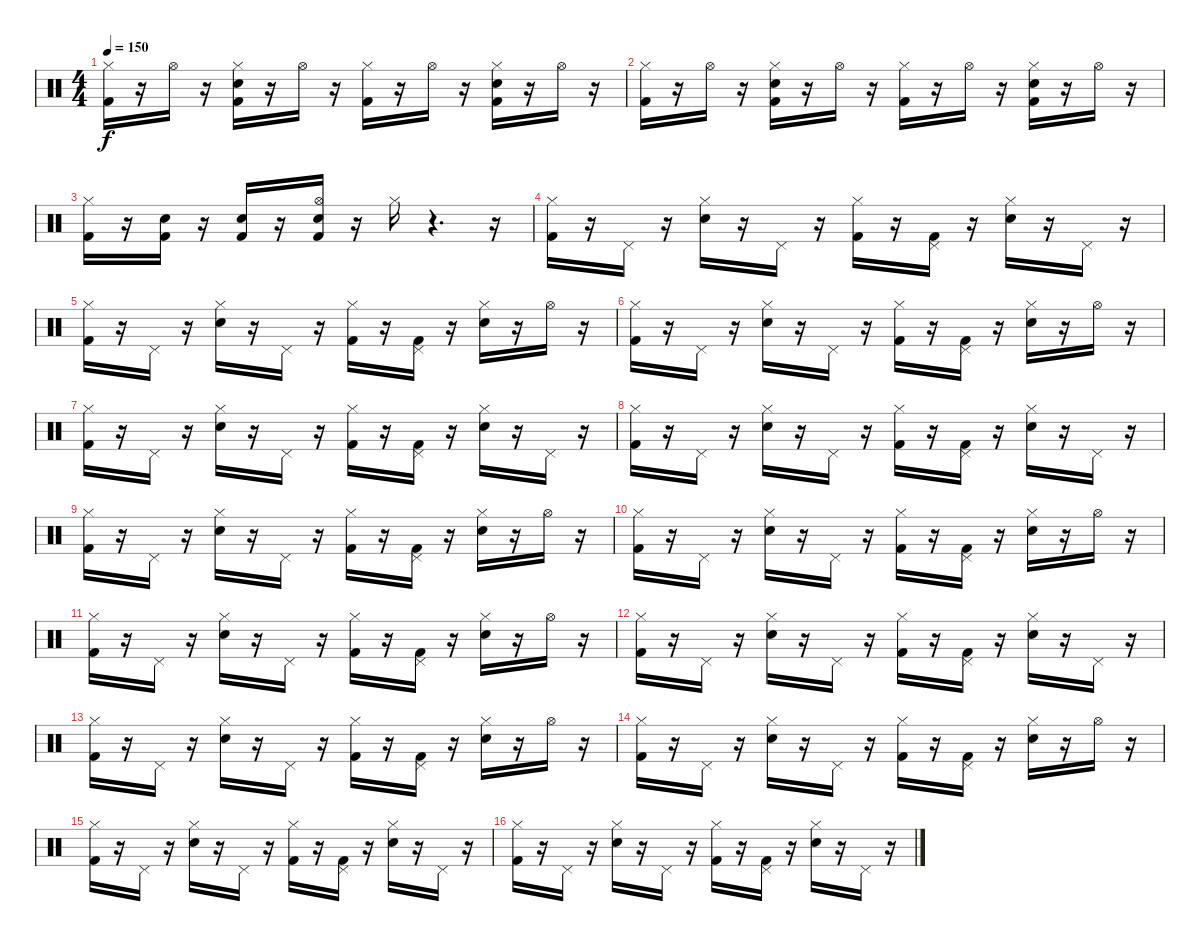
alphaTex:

\track "" {instrument percussion}
\staff {score}
\articulation defaults
\ts (4 4)
\tempo 150
\clef neutral
\ks c
("Hi-Hat (closed)" "Kick (hit) 2").16{dy f} r.16 "Hi-Hat (open)".16 r.16 ("Hi-Hat (closed)" "Kick (hit) 2" "Electric Snare (hit)").16 r.16 "Hi-Hat (open)".16 r.16 ("Hi-Hat (closed)" "Kick (hit) 2").16 r.16 "Hi-Hat (open)".16 r.16 ("Hi-Hat (closed)" "Kick (hit) 2" "Electric Snare (hit)").16 r.16 "Hi-Hat (open)".16 r.16 |
("Hi-Hat (closed)" "Kick (hit) 2").16 r.16 "Hi-Hat (open)".16 r.16 ("Electric Snare (hit)" "Kick (hit) 2" "Hi-Hat (closed)").16 r.16 "Hi-Hat (open)".16 r.16 ("Kick (hit) 2" "Hi-Hat (closed)").16 r.16 "Hi-Hat (open)".16 r.16 ("Electric Snare (hit)" "Kick (hit) 2" "Hi-Hat (closed)").16 r.16 "Hi-Hat (open)".16 r.16 |
("Kick (hit) 2" "Hi-Hat (closed)").16 r.16 ("Kick (hit) 2" "Electric Snare (hit)").16 r.16 ("Kick (hit) 2" "Electric Snare (hit)").16 r.16 ("Electric Snare (hit)" "Hi-Hat (open)" "Kick (hit) 2").16 r.16 "Hi-Hat (closed)".16 r.4{d} r.16 |
("Hi-Hat (closed)" "Kick (hit) 2").16 r.16 "Pedal Hi-Hat (hit)".16 r.16 ("Hi-Hat (closed)" "Electric Snare (hit)").16 r.16 "Pedal Hi-Hat (hit)".16 r.16 ("Hi-Hat (closed)" "Kick (hit) 2").16 r.16 ("Pedal Hi-Hat (hit)" "Kick (hit) 2").16 r.16 ("Hi-Hat (closed)" "Electric Snare (hit)").16 r.16 "Pedal Hi-Hat (hit)".16 r.16 |
("Hi-Hat (closed)" "Kick (hit) 2").16 r.16 "Pedal Hi-Hat (hit)".16 r.16 ("Hi-Hat (closed)" "Electric Snare (hit)").16 r.16 "Pedal Hi-Hat (hit)".16 r.16 ("Hi-Hat (closed)" "Kick (hit) 2").16 r.16 ("Pedal Hi-Hat (hit)" "Kick (hit) 2").16 r.16 ("Hi-Hat (closed)" "Electric Snare (hit)").16 r.16 "Hi-Hat (open)".16 r.16 |
("Hi-Hat (closed)" "Kick (hit) 2").16 r.16 "Pedal Hi-Hat (hit)".16 r.16 ("Electric Snare (hit)" "Hi-Hat (closed)").16 r.16 "Pedal Hi-Hat (hit)".16 r.16 ("Kick (hit) 2" "Hi-Hat (closed)").16 r.16 ("Kick (hit) 2" "Pedal Hi-Hat (hit)").16 r.16 ("Electric Snare (hit)" "Hi-Hat (closed)").16 r.16 "Hi-Hat (open)".16 r.16 |
("Hi-Hat (closed)" "Kick (hit) 2").16 r.16 "Pedal Hi-Hat (hit)".16 r.16 ("Hi-Hat (closed)" "Electric Snare (hit)").16 r.16 "Pedal Hi-Hat (hit)".16 r.16 ("Hi-Hat (closed)" "Kick (hit) 2").16 r.16 ("Pedal Hi-Hat (hit)" "Kick (hit) 2").16 r.16 ("Hi-Hat (closed)" "Electric Snare (hit)").16 r.16 "Pedal Hi-Hat (hit)".16 r.16 |
("Hi-Hat (closed)" "Kick (hit) 2").16 r.16 "Pedal Hi-Hat (hit)".16 r.16 ("Electric Snare (hit)" "Hi-Hat (closed)").16 r.16 "Pedal Hi-Hat (hit)".16 r.16 ("Kick (hit) 2" "Hi-Hat (closed)").16 r.16 ("Kick (hit) 2" "Pedal Hi-Hat (hit)").16 r.16 ("Electric Snare (hit)" "Hi-Hat (closed)").16 r.16 "Pedal Hi-Hat (hit)".16 r.16 |
("Hi-Hat (closed)" "Kick (hit) 2").16 r.16 "Pedal Hi-Hat (hit)".16 r.16 ("Hi-Hat (closed)" "Electric Snare (hit)").16 r.16 "Pedal Hi-Hat (hit)".16 r.16 ("Hi-Hat (closed)" "Kick (hit) 2").16 r.16 ("Pedal Hi-Hat (hit)" "Kick (hit) 2").16 r.16 ("Hi-Hat (closed)" "Electric Snare (hit)").16 r.16 "Hi-Hat (open)".16 r.16 |
("Hi-Hat (closed)" "Kick (hit) 2").16 r.16 "Pedal Hi-Hat (hit)".16 r.16 ("Electric Snare (hit)" "Hi-Hat (closed)").16 r.16 "Pedal Hi-Hat (hit)".16 r.16 ("Kick (hit) 2" "Hi-Hat (closed)").16 r.16 ("Kick (hit) 2" "Pedal Hi-Hat (hit)").16 r.16 ("Electric Snare (hit)" "Hi-Hat (closed)").16 r.16 "Hi-Hat (open)".16 r.16 |
("Kick (hit) 2" "Hi-Hat (closed)").16 r.16 "Pedal Hi-Hat (hit)".16 r.16 ("Hi-Hat (closed)" "Electric Snare (hit)").16 r.16 "Pedal Hi-Hat (hit)".16 r.16 ("Hi-Hat (closed)" "Kick (hit) 2").16 r.16 ("Pedal Hi-Hat (hit)" "Kick (hit) 2").16 r.16 ("Hi-Hat (closed)" "Electric Snare (hit)").16 r.16 "Hi-Hat (open)".16 r.16 |
("Hi-Hat (closed)" "Kick (hit) 2").16 r.16 "Pedal Hi-Hat (hit)".16 r.16 ("Hi-Hat (closed)" "Electric Snare (hit)").16 r.16 "Pedal Hi-Hat (hit)".16 r.16 ("Hi-Hat (closed)" "Kick (hit) 2").16 r.16 ("Pedal Hi-Hat (hit)" "Kick (hit) 2").16 r.16 ("Hi-Hat (closed)" "Electric Snare (hit)").16 r.16 "Pedal Hi-Hat (hit)".16 r.16 |
("Hi-Hat (closed)" "Kick (hit) 2").16 r.16 "Pedal Hi-Hat (hit)".16 r.16 ("Electric Snare (hit)" "Hi-Hat (closed)").16 r.16 "Pedal Hi-Hat (hit)".16 r.16 ("Kick (hit) 2" "Hi-Hat (closed)").16 r.16 ("Kick (hit) 2" "Pedal Hi-Hat (hit)").16 r.16 ("Electric Snare (hit)" "Hi-Hat (closed)").16 r.16 "Hi-Hat (open)".16 r.16 |
("Hi-Hat (closed)" "Kick (hit) 2").16 r.16 "Pedal Hi-Hat (hit)".16 r.16 ("Electric Snare (hit)" "Hi-Hat (closed)").16 r.16 "Pedal Hi-Hat (hit)".16 r.16 ("Kick (hit) 2" "Hi-Hat (closed)").16 r.16 ("Kick (hit) 2" "Pedal Hi-Hat (hit)").16 r.16 ("Electric Snare (hit)" "Hi-Hat (closed)").16 r.16 "Hi-Hat (open)".16 r.16 |
("Hi-Hat (closed)" "Kick (hit) 2").16 r.16 "Pedal Hi-Hat (hit)".16 r.16 ("Electric Snare (hit)" "Hi-Hat (closed)").16 r.16 "Pedal Hi-Hat (hit)".16 r.16 ("Kick (hit) 2" "Hi-Hat (closed)").16 r.16 ("Kick (hit) 2" "Pedal Hi-Hat (hit)").16 r.16 ("Electric Snare (hit)" "Hi-Hat (closed)").16 r.16 "Pedal Hi-Hat (hit)".16 r.16 |
("Hi-Hat (closed)" "Kick (hit) 2").16 r.16 "Pedal Hi-Hat (hit)".16 r.16 ("Hi-Hat (closed)" "Electric Snare (hit)").16 r.16 "Pedal Hi-Hat (hit)".16 r.16 ("Hi-Hat (closed)" "Kick (hit) 2").16 r.16 ("Pedal Hi-Hat (hit)" "Kick (hit) 2").16 r.16 ("Hi-Hat (closed)" "Electric Snare (hit)").16 r.16 "Pedal Hi-Hat (hit)".16 r.16
